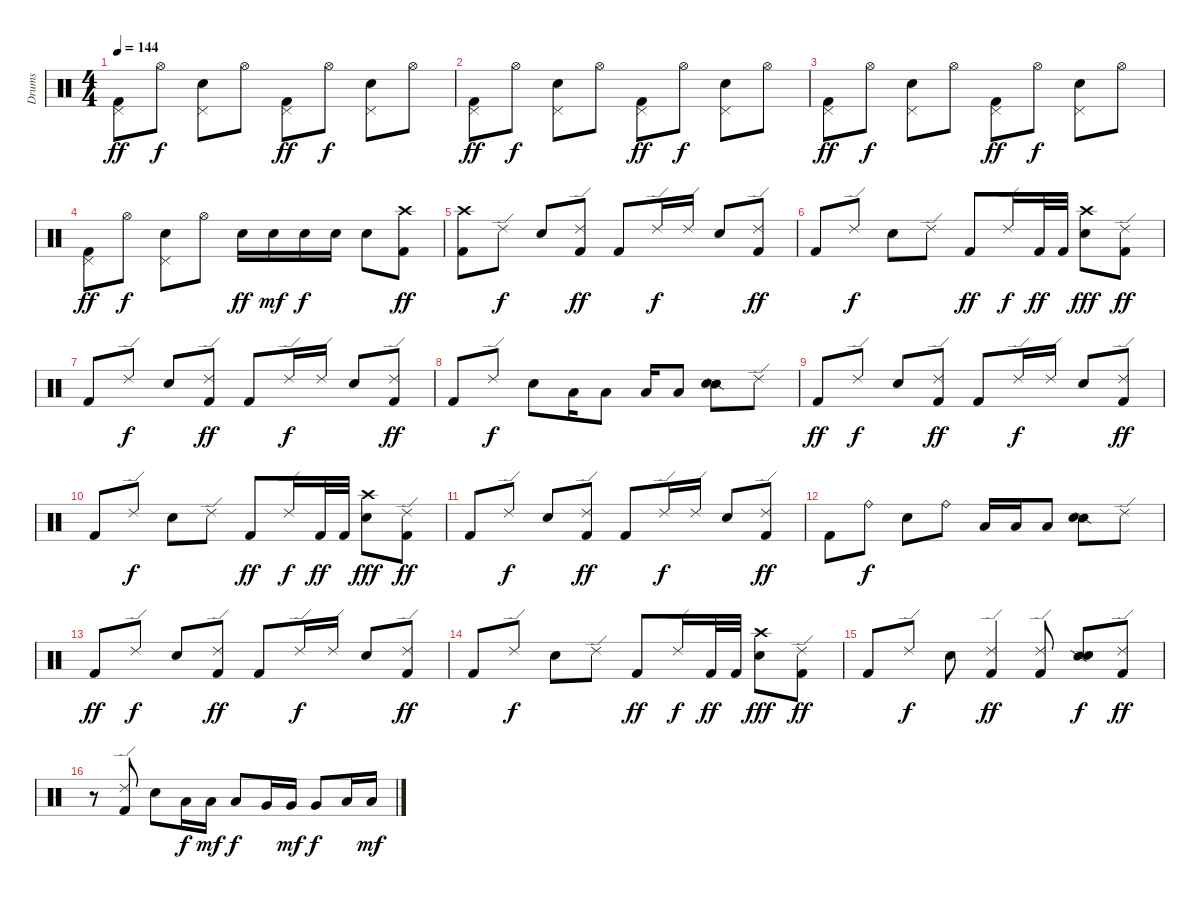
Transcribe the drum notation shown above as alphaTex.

\track ("Drums" "Drums") {instrument percussion}
\staff {score}
\articulation defaults
\ts (4 4)
\tempo 144
\clef neutral
\ks c
("Pedal Hi-Hat (hit)" "Kick (hit) 2").8{dy ff} "Hi-Hat (open)".8{dy f} ("Pedal Hi-Hat (hit)" "Snare (hit) 2").8 "Hi-Hat (open)".8 ("Pedal Hi-Hat (hit)" "Kick (hit) 2").8{dy ff} "Hi-Hat (open)".8{dy f} ("Pedal Hi-Hat (hit)" "Snare (hit) 2").8 "Hi-Hat (open)".8 |
("Pedal Hi-Hat (hit)" "Kick (hit) 2").8{dy ff} "Hi-Hat (open)".8{dy f} ("Pedal Hi-Hat (hit)" "Snare (hit) 2").8 "Hi-Hat (open)".8 ("Pedal Hi-Hat (hit)" "Kick (hit) 2").8{dy ff} "Hi-Hat (open)".8{dy f} ("Pedal Hi-Hat (hit)" "Snare (hit) 2").8 "Hi-Hat (open)".8 |
("Pedal Hi-Hat (hit)" "Kick (hit) 2").8{dy ff} "Hi-Hat (open)".8{dy f} ("Pedal Hi-Hat (hit)" "Snare (hit) 2").8 "Hi-Hat (open)".8 ("Pedal Hi-Hat (hit)" "Kick (hit) 2").8{dy ff} "Hi-Hat (open)".8{dy f} ("Pedal Hi-Hat (hit)" "Snare (hit) 2").8 "Hi-Hat (open)".8 |
("Pedal Hi-Hat (hit)" "Kick (hit) 2").8{dy ff} "Hi-Hat (open)".8{dy f} ("Pedal Hi-Hat (hit)" "Snare (hit) 2").8 "Hi-Hat (open)".8 "Snare (hit) 2".16{dy ff} "Snare (hit) 2".16{dy mf} "Snare (hit) 2".16{dy f} "Snare (hit) 2".16 "Snare (hit) 2".8 ("Crash high (hit)" "Kick (hit) 2").8{dy ff} |
("Crash high (hit)" "Kick (hit) 2").8 "Ride (edge) 2".8{dy f} "Snare (hit) 2".8 ("Ride (edge) 2" "Kick (hit) 2").8{dy ff} "Kick (hit) 2".8 "Ride (edge) 2".16{dy f} "Ride (edge) 2".16 "Snare (hit) 2".8 ("Ride (edge) 2" "Kick (hit) 2").8{dy ff} |
"Kick (hit) 2".8 "Ride (edge) 2".8{dy f} "Snare (hit) 2".8 "Ride (edge) 2".8 "Kick (hit) 2".8{dy ff} "Ride (edge) 2".16{dy f} "Kick (hit) 2".32{dy ff} "Kick (hit) 2".32 ("Crash high (hit)" "Snare (hit) 2").8{dy fff} ("Ride (edge) 2" "Kick (hit) 2").8{dy ff} |
"Kick (hit) 2".8 "Ride (edge) 2".8{dy f} "Snare (hit) 2".8 ("Ride (edge) 2" "Kick (hit) 2").8{dy ff} "Kick (hit) 2".8 "Ride (edge) 2".16{dy f} "Ride (edge) 2".16 "Snare (hit) 2".8 ("Ride (edge) 2" "Kick (hit) 2").8{dy ff} |
"Kick (hit) 2".8 "Ride (edge) 2".8{dy f} "Snare (hit) 2".8 "Low Tom (hit)".16 "Low Tom (hit)".8 "Low Tom (hit)".16 "Low Tom (hit)".8 ("Snare (side stick) 2" "Snare (hit) 2").8 "Ride (edge) 2".8 |
"Kick (hit) 2".8{dy ff} "Ride (edge) 2".8{dy f} "Snare (hit) 2".8 ("Ride (edge) 2" "Kick (hit) 2").8{dy ff} "Kick (hit) 2".8 "Ride (edge) 2".16{dy f} "Ride (edge) 2".16 "Snare (hit) 2".8 ("Ride (edge) 2" "Kick (hit) 2").8{dy ff} |
"Kick (hit) 2".8 "Ride (edge) 2".8{dy f} "Snare (hit) 2".8 "Ride (edge) 2".8 "Kick (hit) 2".8{dy ff} "Ride (edge) 2".16{dy f} "Kick (hit) 2".32{dy ff} "Kick (hit) 2".32 ("Crash high (hit)" "Snare (hit) 2").8{dy fff} ("Ride (edge) 2" "Kick (hit) 2").8{dy ff} |
"Kick (hit) 2".8 "Ride (edge) 2".8{dy f} "Snare (hit) 2".8 ("Ride (edge) 2" "Kick (hit) 2").8{dy ff} "Kick (hit) 2".8 "Ride (edge) 2".16{dy f} "Ride (edge) 2".16 "Snare (hit) 2".8 ("Ride (edge) 2" "Kick (hit) 2").8{dy ff} |
"Kick (hit) 2".8 "Ride (bell)".8{dy f} "Snare (hit) 2".8 "Ride (bell)".8 "Low Tom (hit)".16 "Low Tom (hit)".16 "Low Tom (hit)".8 ("Snare (side stick) 2" "Snare (hit) 2").8 "Ride (edge) 2".8 |
"Kick (hit) 2".8{dy ff} "Ride (edge) 2".8{dy f} "Snare (hit) 2".8 ("Ride (edge) 2" "Kick (hit) 2").8{dy ff} "Kick (hit) 2".8 "Ride (edge) 2".16{dy f} "Ride (edge) 2".16 "Snare (hit) 2".8 ("Ride (edge) 2" "Kick (hit) 2").8{dy ff} |
"Kick (hit) 2".8 "Ride (edge) 2".8{dy f} "Snare (hit) 2".8 "Ride (edge) 2".8 "Kick (hit) 2".8{dy ff} "Ride (edge) 2".16{dy f} "Kick (hit) 2".32{dy ff} "Kick (hit) 2".32 ("Crash high (hit)" "Snare (hit) 2").8{dy fff} ("Ride (edge) 2" "Kick (hit) 2").8{dy ff} |
"Kick (hit) 2".8 "Ride (edge) 2".8{dy f} "Snare (hit) 2".8 ("Ride (edge) 2" "Kick (hit) 2").4{dy ff} ("Ride (edge) 2" "Kick (hit) 2").8 ("Snare (side stick) 2" "Snare (hit) 2").8{dy f} ("Ride (edge) 2" "Kick (hit) 2").8{dy ff} |
r.8 ("Ride (edge) 2" "Kick (hit) 2").8 "Snare (hit) 2".8 "Low Tom (hit)".16{dy f} "Low Tom (hit)".16{dy mf} "Low Tom (hit)".8{dy f} "Very Low Tom (hit)".16 "Very Low Tom (hit)".16{dy mf} "Very Low Tom (hit)".8{dy f} "Low Floor Tom (hit)".16 "Low Floor Tom (hit)".16{dy mf}
